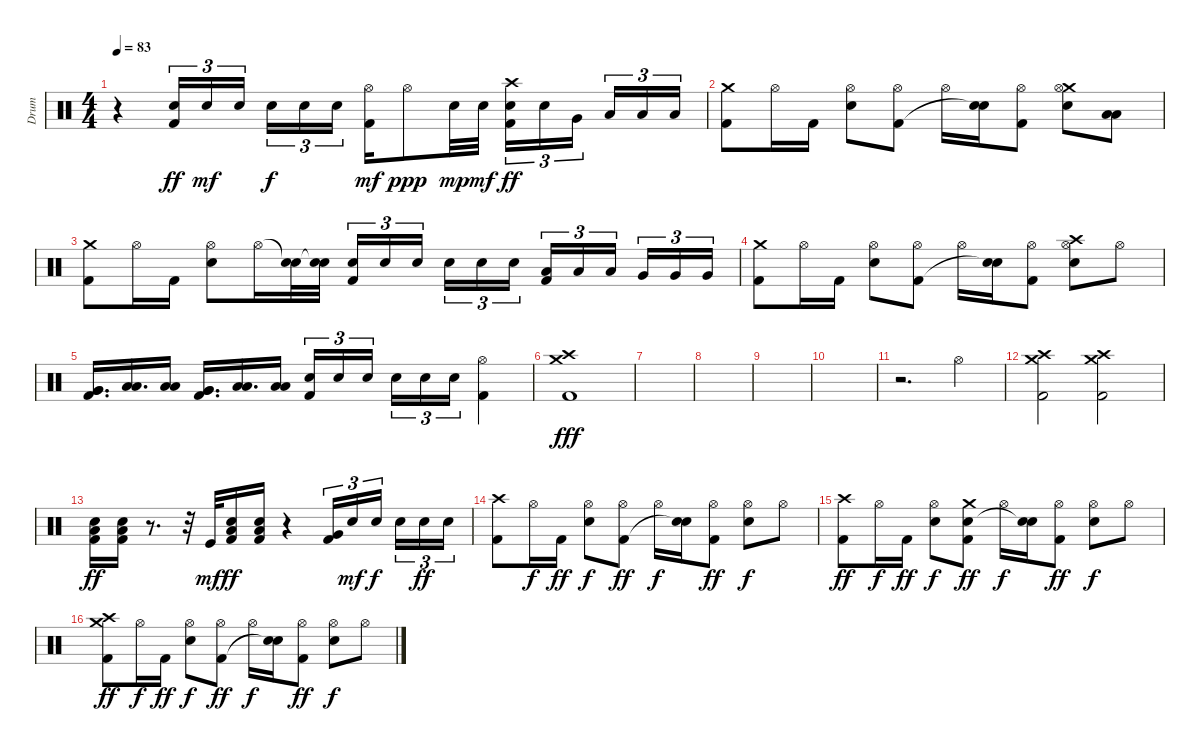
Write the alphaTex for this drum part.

\track ("Drum" "Drum") {instrument percussion}
\staff {score}
\articulation defaults
\ts (4 4)
\tempo 83
\clef neutral
\ks c
r.4{dy ppp} ("Electric Snare (hit)" "Kick (hit) 2").16{tu (3 2) dy ff} "Electric Snare (hit)".16{tu (3 2) dy mf} "Electric Snare (hit)".16{tu (3 2) beam splitsecondary} "Electric Snare (hit)".16{tu (3 2) dy f} "Electric Snare (hit)".16{tu (3 2)} "Electric Snare (hit)".16{tu (3 2)} ("Hi-Hat (open)" "Kick (hit) 2").16{dy mf} "Hi-Hat (open)".8{dy ppp} "Electric Snare (hit)".32{dy mp} "Electric Snare (hit)".32{dy mf} ("Crash high (hit)" "Electric Snare (hit)" "Kick (hit) 2").16{tu (3 2) dy ff} "Electric Snare (hit)".16{tu (3 2)} "Very Low Tom (hit)".16{tu (3 2) beam splitsecondary} "Low Tom (hit)".16{tu (3 2)} "Low Tom (hit)".16{tu (3 2)} "Low Floor Tom (hit)".16{tu (3 2)} |
("Crash medium (hit)" "Kick (hit) 2").8 "Hi-Hat (open)".16 "Kick (hit) 2".16 ("Electric Snare (hit)" "Hi-Hat (open)").8 ("Hi-Hat (open)" "Kick (hit) 2").8 "Hi-Hat (open)".16 ("Electric Snare (hit)" "Snare (hit)"{t}).16 ("Hi-Hat (open)" "Kick (hit) 2").8 ("Crash medium (hit)" "Electric Snare (hit)" "Hi-Hat (open)").8 ("Low Tom (hit)" "Low Floor Tom (hit)").8 |
("Crash medium (hit)" "Kick (hit) 2").8 "Hi-Hat (open)".16 "Kick (hit) 2".16 ("Electric Snare (hit)" "Hi-Hat (open)").8 "Hi-Hat (open)".16 ("Snare (hit)"{t} "Electric Snare (hit)").32 ("Snare (hit)"{t} "Electric Snare (hit)").32 ("Electric Snare (hit)" "Kick (hit) 2").16{tu (3 2)} "Electric Snare (hit)".16{tu (3 2)} "Electric Snare (hit)".16{tu (3 2) beam splitsecondary} "Electric Snare (hit)".16{tu (3 2)} "Electric Snare (hit)".16{tu (3 2)} "Electric Snare (hit)".16{tu (3 2)} ("Low Tom (hit)" "Kick (hit) 2").16{tu (3 2)} "Low Tom (hit)".16{tu (3 2)} "Low Tom (hit)".16{tu (3 2) beam splitsecondary} "Very Low Tom (hit)".16{tu (3 2)} "Very Low Tom (hit)".16{tu (3 2)} "Very Low Tom (hit)".16{tu (3 2)} |
("Crash medium (hit)" "Kick (hit) 2").8 "Hi-Hat (open)".16 "Kick (hit) 2".16 ("Electric Snare (hit)" "Hi-Hat (open)").8 ("Hi-Hat (open)" "Kick (hit) 2").8 "Hi-Hat (open)".16 ("Electric Snare (hit)" "Snare (hit)"{t}).16 ("Hi-Hat (open)" "Kick (hit) 2").8 ("Crash high (hit)" "Electric Snare (hit)" "Hi-Hat (open)").8 "Hi-Hat (open)".8 |
("Very Low Tom (hit)" "Very Low Tom (hit)" "Kick (hit) 2").16{d} ("Low Tom (hit)" "Low Tom (hit)").16{d} ("Low Floor Tom (hit)" "Low Floor Tom (hit)").16 ("Very Low Tom (hit)" "Very Low Tom (hit)" "Kick (hit) 2").16{d} ("Low Tom (hit)" "Low Tom (hit)").16{d} ("Low Floor Tom (hit)" "Low Floor Tom (hit)").16 ("Electric Snare (hit)" "Kick (hit) 2").16{tu (3 2)} "Electric Snare (hit)".16{tu (3 2)} "Electric Snare (hit)".16{tu (3 2) beam splitsecondary} "Electric Snare (hit)".16{tu (3 2)} "Electric Snare (hit)".16{tu (3 2)} "Electric Snare (hit)".16{tu (3 2)} ("Hi-Hat (open)" "Kick (hit) 2").4 |
("Crash medium (hit)" "Crash high (hit)" "Kick (hit) 2").1{dy fff} |
|
|
|
|
r.2{d} "Hi-Hat (open)".4 |
("Crash medium (hit)" "Crash high (hit)" "Kick (hit) 2").2 ("Crash medium (hit)" "Crash high (hit)" "Kick (hit) 2").2 |
("Low Floor Tom (hit)" "Electric Snare (hit)" "Kick (hit) 2").16{dy ff} ("Low Floor Tom (hit)" "Electric Snare (hit)" "Kick (hit) 2").16 r.8{d} r.32 "Kick (hit)".32{dy mf} ("Low Floor Tom (hit)" "Electric Snare (hit)" "Kick (hit) 2").16{dy ff} ("Low Floor Tom (hit)" "Electric Snare (hit)" "Kick (hit) 2").16 r.4 ("Very Low Tom (hit)" "Kick (hit) 2").16{tu (3 2)} "Electric Snare (hit)".16{tu (3 2) dy mf} "Electric Snare (hit)".16{tu (3 2) dy f beam splitsecondary} "Electric Snare (hit)".16{tu (3 2)} "Electric Snare (hit)".16{tu (3 2) dy ff} "Electric Snare (hit)".16{tu (3 2)} |
("Crash high (hit)" "Kick (hit) 2").8 "Hi-Hat (open)".16{dy f} "Kick (hit) 2".16{dy ff} ("Electric Snare (hit)" "Hi-Hat (open)").8{dy f} ("Hi-Hat (open)" "Kick (hit) 2").8{dy ff} "Hi-Hat (open)".16{dy f} ("Electric Snare (hit)" "Snare (hit)"{t}).16 ("Hi-Hat (open)" "Kick (hit) 2").8{dy ff} ("Electric Snare (hit)" "Hi-Hat (open)").8{dy f} "Hi-Hat (open)".8 |
("Crash high (hit)" "Kick (hit) 2").8{dy ff} "Hi-Hat (open)".16{dy f} "Kick (hit) 2".16{dy ff} ("Electric Snare (hit)" "Hi-Hat (open)").8{dy f} ("Crash medium (hit)" "Electric Snare (hit)" "Kick (hit) 2").8{dy ff} "Hi-Hat (open)".16{dy f} ("Electric Snare (hit)" "Snare (hit)"{t}).16 ("Hi-Hat (open)" "Kick (hit) 2").8{dy ff} ("Electric Snare (hit)" "Hi-Hat (open)").8{dy f} "Hi-Hat (open)".8 |
("Crash high (hit)" "Crash medium (hit)" "Kick (hit) 2").8{dy ff} "Hi-Hat (open)".16{dy f} "Kick (hit) 2".16{dy ff} ("Electric Snare (hit)" "Hi-Hat (open)").8{dy f} ("Hi-Hat (open)" "Kick (hit) 2").8{dy ff} "Hi-Hat (open)".16{dy f} ("Electric Snare (hit)" "Snare (hit)"{t}).16 ("Hi-Hat (open)" "Kick (hit) 2").8{dy ff} ("Electric Snare (hit)" "Hi-Hat (open)").8{dy f} "Hi-Hat (open)".8
